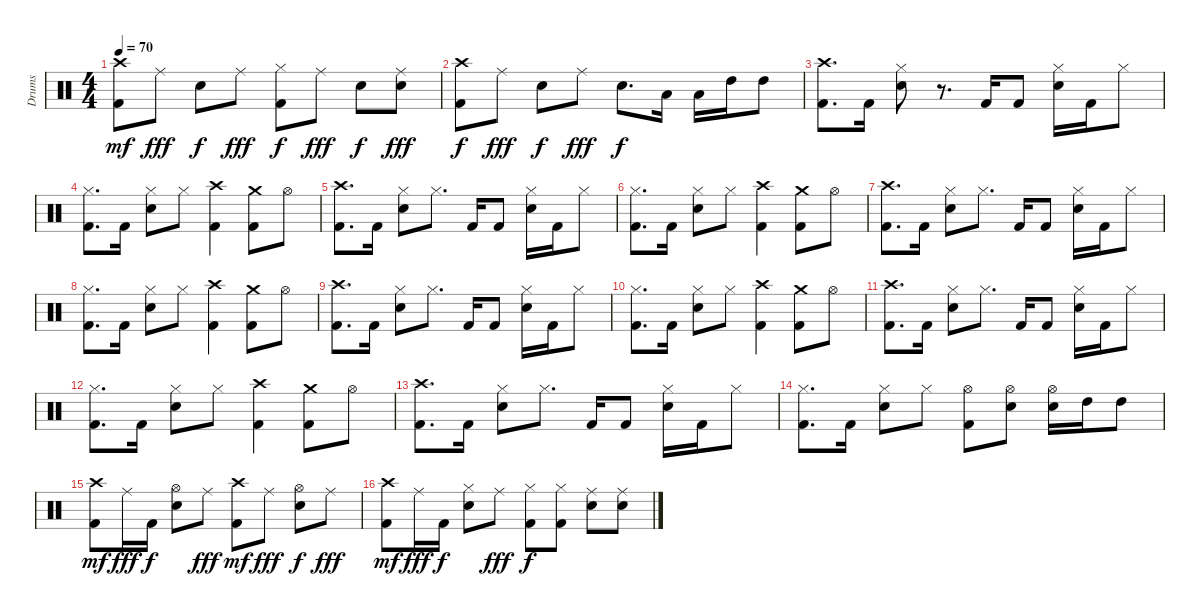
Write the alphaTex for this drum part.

\track ("Drums" "Drums") {instrument percussion}
\staff {score}
\articulation defaults
\ts (4 4)
\tempo 70
\clef neutral
\ks c
("Kick (hit) 2" "Crash high (hit)").8{dy mf} "Ride (middle)".8{dy fff} "Snare (hit) 2".8{dy f} "Ride (middle)".8{dy fff} ("Kick (hit) 2" "Hi-Hat (closed)").8{dy f} "Ride (middle)".8{dy fff} "Snare (hit) 2".8{dy f} ("Snare (hit) 2" "Ride (middle)").8{dy fff} |
("Kick (hit) 2" "Crash high (hit)").8{dy f} "Ride (middle)".8{dy fff} "Snare (hit) 2".8{dy f} "Ride (middle)".8{dy fff} "Snare (hit) 2".8{d dy f} "Low Tom (hit)".16 "Low Tom (hit)".16 "High Tom (hit)".16 "High Tom (hit)".8 |
("Kick (hit) 2" "Crash high (hit)").8{d} "Kick (hit) 2".16 ("Snare (hit) 2" "Hi-Hat (closed)").8 r.8{d} "Kick (hit) 2".16 "Kick (hit) 2".8 ("Snare (hit) 2" "Hi-Hat (closed)").16 "Kick (hit) 2".16 "Hi-Hat (closed)".8 |
("Kick (hit) 2" "Hi-Hat (closed)").8{d} "Kick (hit) 2".16 ("Snare (hit) 2" "Hi-Hat (closed)").8 "Hi-Hat (closed)".8 ("Kick (hit) 2" "Crash high (hit)").4 ("Kick (hit) 2" "Crash medium (hit)").8 "Hi-Hat (open)".8 |
("Kick (hit) 2" "Crash high (hit)").8{d} "Kick (hit) 2".16 ("Snare (hit) 2" "Hi-Hat (closed)").8 "Hi-Hat (closed)".8{d} "Kick (hit) 2".16 "Kick (hit) 2".8 ("Snare (hit) 2" "Hi-Hat (closed)").16 "Kick (hit) 2".16 "Hi-Hat (closed)".8 |
("Kick (hit) 2" "Hi-Hat (closed)").8{d} "Kick (hit) 2".16 ("Snare (hit) 2" "Hi-Hat (closed)").8 "Hi-Hat (closed)".8 ("Kick (hit) 2" "Crash high (hit)").4 ("Kick (hit) 2" "Crash medium (hit)").8 "Hi-Hat (open)".8 |
("Kick (hit) 2" "Crash high (hit)").8{d} "Kick (hit) 2".16 ("Snare (hit) 2" "Hi-Hat (closed)").8 "Hi-Hat (closed)".8{d} "Kick (hit) 2".16 "Kick (hit) 2".8 ("Snare (hit) 2" "Hi-Hat (closed)").16 "Kick (hit) 2".16 "Hi-Hat (closed)".8 |
("Kick (hit) 2" "Hi-Hat (closed)").8{d} "Kick (hit) 2".16 ("Snare (hit) 2" "Hi-Hat (closed)").8 "Hi-Hat (closed)".8 ("Kick (hit) 2" "Crash high (hit)").4 ("Kick (hit) 2" "Crash medium (hit)").8 "Hi-Hat (open)".8 |
("Kick (hit) 2" "Crash high (hit)").8{d} "Kick (hit) 2".16 ("Snare (hit) 2" "Hi-Hat (closed)").8 "Hi-Hat (closed)".8{d} "Kick (hit) 2".16 "Kick (hit) 2".8 ("Snare (hit) 2" "Hi-Hat (closed)").16 "Kick (hit) 2".16 "Hi-Hat (closed)".8 |
("Kick (hit) 2" "Hi-Hat (closed)").8{d} "Kick (hit) 2".16 ("Snare (hit) 2" "Hi-Hat (closed)").8 "Hi-Hat (closed)".8 ("Kick (hit) 2" "Crash high (hit)").4 ("Kick (hit) 2" "Crash medium (hit)").8 "Hi-Hat (open)".8 |
("Kick (hit) 2" "Crash high (hit)").8{d} "Kick (hit) 2".16 ("Snare (hit) 2" "Hi-Hat (closed)").8 "Hi-Hat (closed)".8{d} "Kick (hit) 2".16 "Kick (hit) 2".8 ("Snare (hit) 2" "Hi-Hat (closed)").16 "Kick (hit) 2".16 "Hi-Hat (closed)".8 |
("Kick (hit) 2" "Hi-Hat (closed)").8{d} "Kick (hit) 2".16 ("Snare (hit) 2" "Hi-Hat (closed)").8 "Hi-Hat (closed)".8 ("Kick (hit) 2" "Crash high (hit)").4 ("Kick (hit) 2" "Crash medium (hit)").8 "Hi-Hat (open)".8 |
("Kick (hit) 2" "Crash high (hit)").8{d} "Kick (hit) 2".16 ("Snare (hit) 2" "Hi-Hat (closed)").8 "Hi-Hat (closed)".8{d} "Kick (hit) 2".16 "Kick (hit) 2".8 ("Snare (hit) 2" "Hi-Hat (closed)").16 "Kick (hit) 2".16 "Hi-Hat (closed)".8 |
("Kick (hit) 2" "Hi-Hat (closed)").8{d} "Kick (hit) 2".16 ("Snare (hit) 2" "Hi-Hat (closed)").8 "Hi-Hat (closed)".8 ("Kick (hit) 2" "Hi-Hat (open)").8 ("Snare (hit) 2" "Hi-Hat (open)").8 ("Snare (hit) 2" "Hi-Hat (open)").16 "High Tom (hit)".16 "High Tom (hit)".8 |
("Kick (hit) 2" "Crash high (hit)").8{dy mf} "Ride (middle)".16{dy fff} "Kick (hit) 2".16{dy f} ("Snare (hit) 2" "Hi-Hat (open)").8 "Ride (middle)".8{dy fff} ("Kick (hit) 2" "Crash high (hit)").8{dy mf} "Ride (middle)".8{dy fff} ("Snare (hit) 2" "Hi-Hat (open)").8{dy f} "Ride (middle)".8{dy fff} |
("Kick (hit) 2" "Crash high (hit)").8{dy mf} "Ride (middle)".16{dy fff} "Kick (hit) 2".16{dy f} ("Snare (hit) 2" "Hi-Hat (closed)").8 "Ride (middle)".8{dy fff} ("Kick (hit) 2" "Hi-Hat (closed)").8{dy f} ("Kick (hit) 2" "Hi-Hat (closed)").8 ("Snare (hit) 2" "Ride (middle)").8 ("Snare (hit) 2" "Ride (middle)").8
